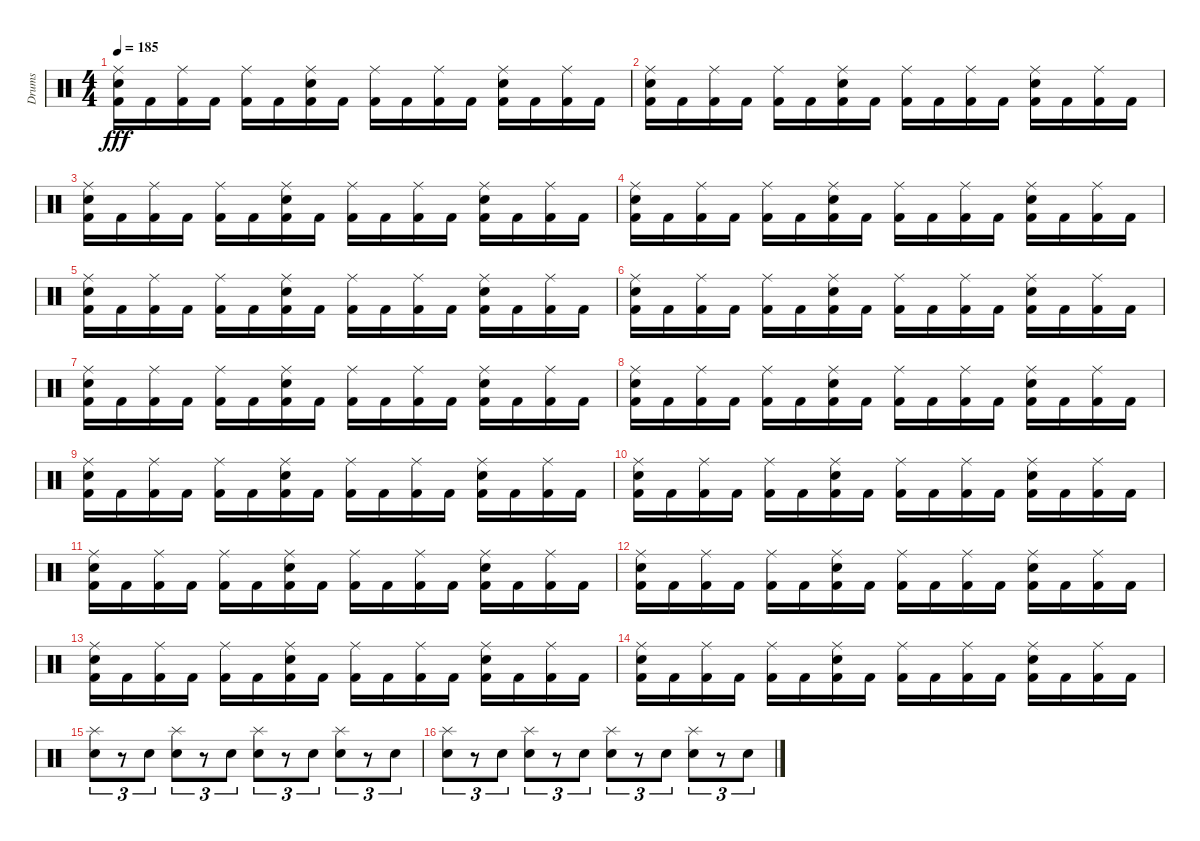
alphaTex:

\track ("Drums" "Drums") {instrument percussion}
\staff {score}
\articulation defaults
\ts (4 4)
\tempo 185
\clef neutral
\ks c
("Ride (middle)" "Electric Snare (hit)" "Kick (hit) 2").16{dy fff} "Kick (hit) 2".16 ("Ride (middle)" "Kick (hit) 2").16 "Kick (hit) 2".16 ("Ride (middle)" "Kick (hit) 2").16 "Kick (hit) 2".16 ("Ride (middle)" "Electric Snare (hit)" "Kick (hit) 2").16 "Kick (hit) 2".16 ("Ride (middle)" "Kick (hit) 2").16 "Kick (hit) 2".16 ("Ride (middle)" "Kick (hit) 2").16 "Kick (hit) 2".16 ("Ride (middle)" "Electric Snare (hit)" "Kick (hit) 2").16 "Kick (hit) 2".16 ("Ride (middle)" "Kick (hit) 2").16 "Kick (hit) 2".16 |
("Ride (middle)" "Electric Snare (hit)" "Kick (hit) 2").16 "Kick (hit) 2".16 ("Ride (middle)" "Kick (hit) 2").16 "Kick (hit) 2".16 ("Ride (middle)" "Kick (hit) 2").16 "Kick (hit) 2".16 ("Ride (middle)" "Electric Snare (hit)" "Kick (hit) 2").16 "Kick (hit) 2".16 ("Ride (middle)" "Kick (hit) 2").16 "Kick (hit) 2".16 ("Ride (middle)" "Kick (hit) 2").16 "Kick (hit) 2".16 ("Ride (middle)" "Electric Snare (hit)" "Kick (hit) 2").16 "Kick (hit) 2".16 ("Ride (middle)" "Kick (hit) 2").16 "Kick (hit) 2".16 |
("Ride (middle)" "Electric Snare (hit)" "Kick (hit) 2").16 "Kick (hit) 2".16 ("Ride (middle)" "Kick (hit) 2").16 "Kick (hit) 2".16 ("Ride (middle)" "Kick (hit) 2").16 "Kick (hit) 2".16 ("Ride (middle)" "Electric Snare (hit)" "Kick (hit) 2").16 "Kick (hit) 2".16 ("Ride (middle)" "Kick (hit) 2").16 "Kick (hit) 2".16 ("Ride (middle)" "Kick (hit) 2").16 "Kick (hit) 2".16 ("Ride (middle)" "Electric Snare (hit)" "Kick (hit) 2").16 "Kick (hit) 2".16 ("Ride (middle)" "Kick (hit) 2").16 "Kick (hit) 2".16 |
("Ride (middle)" "Electric Snare (hit)" "Kick (hit) 2").16 "Kick (hit) 2".16 ("Ride (middle)" "Kick (hit) 2").16 "Kick (hit) 2".16 ("Ride (middle)" "Kick (hit) 2").16 "Kick (hit) 2".16 ("Ride (middle)" "Electric Snare (hit)" "Kick (hit) 2").16 "Kick (hit) 2".16 ("Ride (middle)" "Kick (hit) 2").16 "Kick (hit) 2".16 ("Ride (middle)" "Kick (hit) 2").16 "Kick (hit) 2".16 ("Ride (middle)" "Electric Snare (hit)" "Kick (hit) 2").16 "Kick (hit) 2".16 ("Ride (middle)" "Kick (hit) 2").16 "Kick (hit) 2".16 |
("Ride (middle)" "Electric Snare (hit)" "Kick (hit) 2").16 "Kick (hit) 2".16 ("Ride (middle)" "Kick (hit) 2").16 "Kick (hit) 2".16 ("Ride (middle)" "Kick (hit) 2").16 "Kick (hit) 2".16 ("Ride (middle)" "Electric Snare (hit)" "Kick (hit) 2").16 "Kick (hit) 2".16 ("Ride (middle)" "Kick (hit) 2").16 "Kick (hit) 2".16 ("Ride (middle)" "Kick (hit) 2").16 "Kick (hit) 2".16 ("Ride (middle)" "Electric Snare (hit)" "Kick (hit) 2").16 "Kick (hit) 2".16 ("Ride (middle)" "Kick (hit) 2").16 "Kick (hit) 2".16 |
("Ride (middle)" "Electric Snare (hit)" "Kick (hit) 2").16 "Kick (hit) 2".16 ("Ride (middle)" "Kick (hit) 2").16 "Kick (hit) 2".16 ("Ride (middle)" "Kick (hit) 2").16 "Kick (hit) 2".16 ("Ride (middle)" "Electric Snare (hit)" "Kick (hit) 2").16 "Kick (hit) 2".16 ("Ride (middle)" "Kick (hit) 2").16 "Kick (hit) 2".16 ("Ride (middle)" "Kick (hit) 2").16 "Kick (hit) 2".16 ("Ride (middle)" "Electric Snare (hit)" "Kick (hit) 2").16 "Kick (hit) 2".16 ("Ride (middle)" "Kick (hit) 2").16 "Kick (hit) 2".16 |
("Ride (middle)" "Electric Snare (hit)" "Kick (hit) 2").16 "Kick (hit) 2".16 ("Ride (middle)" "Kick (hit) 2").16 "Kick (hit) 2".16 ("Ride (middle)" "Kick (hit) 2").16 "Kick (hit) 2".16 ("Ride (middle)" "Electric Snare (hit)" "Kick (hit) 2").16 "Kick (hit) 2".16 ("Ride (middle)" "Kick (hit) 2").16 "Kick (hit) 2".16 ("Ride (middle)" "Kick (hit) 2").16 "Kick (hit) 2".16 ("Ride (middle)" "Electric Snare (hit)" "Kick (hit) 2").16 "Kick (hit) 2".16 ("Ride (middle)" "Kick (hit) 2").16 "Kick (hit) 2".16 |
("Ride (middle)" "Electric Snare (hit)" "Kick (hit) 2").16 "Kick (hit) 2".16 ("Ride (middle)" "Kick (hit) 2").16 "Kick (hit) 2".16 ("Ride (middle)" "Kick (hit) 2").16 "Kick (hit) 2".16 ("Ride (middle)" "Electric Snare (hit)" "Kick (hit) 2").16 "Kick (hit) 2".16 ("Ride (middle)" "Kick (hit) 2").16 "Kick (hit) 2".16 ("Ride (middle)" "Kick (hit) 2").16 "Kick (hit) 2".16 ("Ride (middle)" "Electric Snare (hit)" "Kick (hit) 2").16 "Kick (hit) 2".16 ("Ride (middle)" "Kick (hit) 2").16 "Kick (hit) 2".16 |
("Ride (middle)" "Electric Snare (hit)" "Kick (hit) 2").16 "Kick (hit) 2".16 ("Ride (middle)" "Kick (hit) 2").16 "Kick (hit) 2".16 ("Ride (middle)" "Kick (hit) 2").16 "Kick (hit) 2".16 ("Ride (middle)" "Electric Snare (hit)" "Kick (hit) 2").16 "Kick (hit) 2".16 ("Ride (middle)" "Kick (hit) 2").16 "Kick (hit) 2".16 ("Ride (middle)" "Kick (hit) 2").16 "Kick (hit) 2".16 ("Ride (middle)" "Electric Snare (hit)" "Kick (hit) 2").16 "Kick (hit) 2".16 ("Ride (middle)" "Kick (hit) 2").16 "Kick (hit) 2".16 |
("Ride (middle)" "Electric Snare (hit)" "Kick (hit) 2").16 "Kick (hit) 2".16 ("Ride (middle)" "Kick (hit) 2").16 "Kick (hit) 2".16 ("Ride (middle)" "Kick (hit) 2").16 "Kick (hit) 2".16 ("Ride (middle)" "Electric Snare (hit)" "Kick (hit) 2").16 "Kick (hit) 2".16 ("Ride (middle)" "Kick (hit) 2").16 "Kick (hit) 2".16 ("Ride (middle)" "Kick (hit) 2").16 "Kick (hit) 2".16 ("Ride (middle)" "Electric Snare (hit)" "Kick (hit) 2").16 "Kick (hit) 2".16 ("Ride (middle)" "Kick (hit) 2").16 "Kick (hit) 2".16 |
("Ride (middle)" "Electric Snare (hit)" "Kick (hit) 2").16 "Kick (hit) 2".16 ("Ride (middle)" "Kick (hit) 2").16 "Kick (hit) 2".16 ("Ride (middle)" "Kick (hit) 2").16 "Kick (hit) 2".16 ("Ride (middle)" "Electric Snare (hit)" "Kick (hit) 2").16 "Kick (hit) 2".16 ("Ride (middle)" "Kick (hit) 2").16 "Kick (hit) 2".16 ("Ride (middle)" "Kick (hit) 2").16 "Kick (hit) 2".16 ("Ride (middle)" "Electric Snare (hit)" "Kick (hit) 2").16 "Kick (hit) 2".16 ("Ride (middle)" "Kick (hit) 2").16 "Kick (hit) 2".16 |
("Ride (middle)" "Electric Snare (hit)" "Kick (hit) 2").16 "Kick (hit) 2".16 ("Ride (middle)" "Kick (hit) 2").16 "Kick (hit) 2".16 ("Ride (middle)" "Kick (hit) 2").16 "Kick (hit) 2".16 ("Ride (middle)" "Electric Snare (hit)" "Kick (hit) 2").16 "Kick (hit) 2".16 ("Ride (middle)" "Kick (hit) 2").16 "Kick (hit) 2".16 ("Ride (middle)" "Kick (hit) 2").16 "Kick (hit) 2".16 ("Ride (middle)" "Electric Snare (hit)" "Kick (hit) 2").16 "Kick (hit) 2".16 ("Ride (middle)" "Kick (hit) 2").16 "Kick (hit) 2".16 |
("Ride (middle)" "Electric Snare (hit)" "Kick (hit) 2").16 "Kick (hit) 2".16 ("Ride (middle)" "Kick (hit) 2").16 "Kick (hit) 2".16 ("Ride (middle)" "Kick (hit) 2").16 "Kick (hit) 2".16 ("Ride (middle)" "Electric Snare (hit)" "Kick (hit) 2").16 "Kick (hit) 2".16 ("Ride (middle)" "Kick (hit) 2").16 "Kick (hit) 2".16 ("Ride (middle)" "Kick (hit) 2").16 "Kick (hit) 2".16 ("Ride (middle)" "Electric Snare (hit)" "Kick (hit) 2").16 "Kick (hit) 2".16 ("Ride (middle)" "Kick (hit) 2").16 "Kick (hit) 2".16 |
("Ride (middle)" "Electric Snare (hit)" "Kick (hit) 2").16 "Kick (hit) 2".16 ("Ride (middle)" "Kick (hit) 2").16 "Kick (hit) 2".16 ("Ride (middle)" "Kick (hit) 2").16 "Kick (hit) 2".16 ("Ride (middle)" "Electric Snare (hit)" "Kick (hit) 2").16 "Kick (hit) 2".16 ("Ride (middle)" "Kick (hit) 2").16 "Kick (hit) 2".16 ("Ride (middle)" "Kick (hit) 2").16 "Kick (hit) 2".16 ("Ride (middle)" "Electric Snare (hit)" "Kick (hit) 2").16 "Kick (hit) 2".16 ("Ride (middle)" "Kick (hit) 2").16 "Kick (hit) 2".16 |
("Splash (hit)" "Snare (hit) 2").8{tu (3 2)} r.8{tu (3 2)} "Electric Snare (hit)".8{tu (3 2)} ("Splash (hit)" "Snare (hit) 2").8{tu (3 2)} r.8{tu (3 2)} "Electric Snare (hit)".8{tu (3 2)} ("Splash (hit)" "Snare (hit) 2").8{tu (3 2)} r.8{tu (3 2)} "Electric Snare (hit)".8{tu (3 2)} ("Splash (hit)" "Snare (hit) 2").8{tu (3 2)} r.8{tu (3 2)} "Electric Snare (hit)".8{tu (3 2)} |
("Splash (hit)" "Snare (hit) 2").8{tu (3 2)} r.8{tu (3 2)} "Electric Snare (hit)".8{tu (3 2)} ("Splash (hit)" "Snare (hit) 2").8{tu (3 2)} r.8{tu (3 2)} "Electric Snare (hit)".8{tu (3 2)} ("Splash (hit)" "Snare (hit) 2").8{tu (3 2)} r.8{tu (3 2)} "Electric Snare (hit)".8{tu (3 2)} ("Splash (hit)" "Snare (hit) 2").8{tu (3 2)} r.8{tu (3 2)} "Electric Snare (hit)".8{tu (3 2)}
